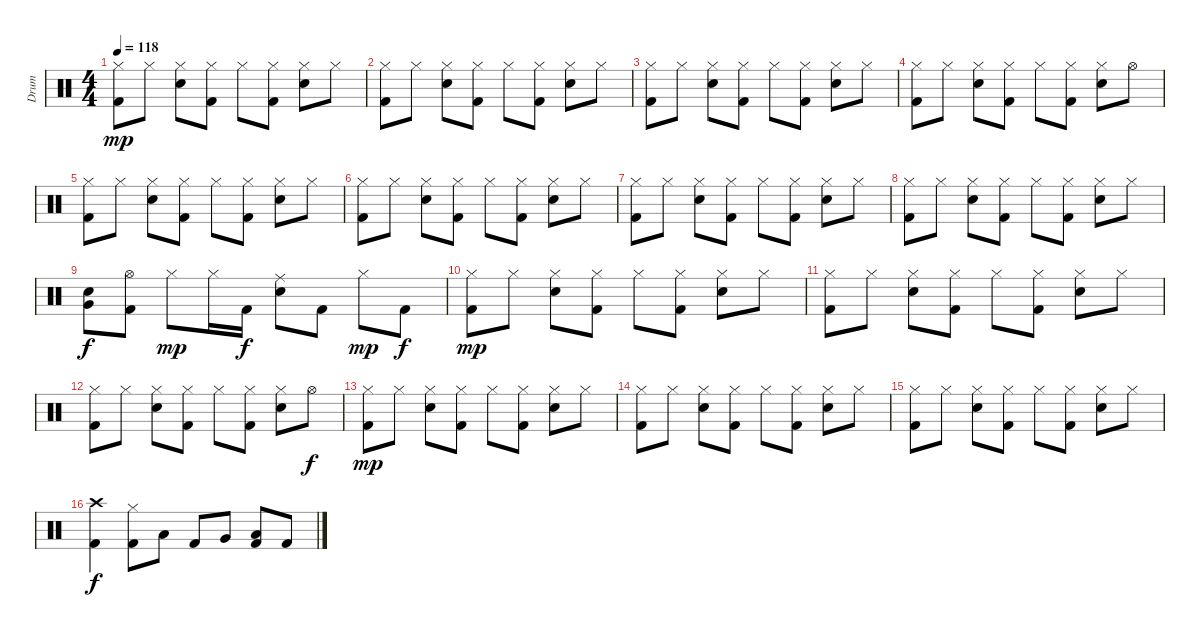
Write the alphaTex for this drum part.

\track ("Drum" "Drum") {instrument percussion}
\staff {score}
\articulation defaults
\ts (4 4)
\tempo 118
\clef neutral
\ks c
("Hi-Hat (closed)" "Kick (hit) 2").8{dy mp} "Hi-Hat (closed)".8 ("Hi-Hat (closed)" "Snare (hit) 2").8 ("Hi-Hat (closed)" "Kick (hit) 2").8 "Hi-Hat (closed)".8 ("Hi-Hat (closed)" "Kick (hit) 2").8 ("Hi-Hat (closed)" "Snare (hit) 2").8 "Hi-Hat (closed)".8 |
("Hi-Hat (closed)" "Kick (hit) 2").8 "Hi-Hat (closed)".8 ("Hi-Hat (closed)" "Snare (hit) 2").8 ("Hi-Hat (closed)" "Kick (hit) 2").8 "Hi-Hat (closed)".8 ("Hi-Hat (closed)" "Kick (hit) 2").8 ("Hi-Hat (closed)" "Snare (hit) 2").8 "Hi-Hat (closed)".8 |
("Hi-Hat (closed)" "Kick (hit) 2").8 "Hi-Hat (closed)".8 ("Hi-Hat (closed)" "Snare (hit) 2").8 ("Hi-Hat (closed)" "Kick (hit) 2").8 "Hi-Hat (closed)".8 ("Hi-Hat (closed)" "Kick (hit) 2").8 ("Hi-Hat (closed)" "Snare (hit) 2").8 "Hi-Hat (closed)".8 |
("Hi-Hat (closed)" "Kick (hit) 2").8 "Hi-Hat (closed)".8 ("Hi-Hat (closed)" "Snare (hit) 2").8 ("Hi-Hat (closed)" "Kick (hit) 2").8 "Hi-Hat (closed)".8 ("Hi-Hat (closed)" "Kick (hit) 2").8 ("Hi-Hat (closed)" "Snare (hit) 2").8 "Hi-Hat (open)".8 |
("Hi-Hat (closed)" "Kick (hit) 2").8 "Hi-Hat (closed)".8 ("Hi-Hat (closed)" "Snare (hit) 2").8 ("Hi-Hat (closed)" "Kick (hit) 2").8 "Hi-Hat (closed)".8 ("Hi-Hat (closed)" "Kick (hit) 2").8 ("Hi-Hat (closed)" "Snare (hit) 2").8 "Hi-Hat (closed)".8 |
("Hi-Hat (closed)" "Kick (hit) 2").8 "Hi-Hat (closed)".8 ("Hi-Hat (closed)" "Snare (hit) 2").8 ("Hi-Hat (closed)" "Kick (hit) 2").8 "Hi-Hat (closed)".8 ("Hi-Hat (closed)" "Kick (hit) 2").8 ("Hi-Hat (closed)" "Snare (hit) 2").8 "Hi-Hat (closed)".8 |
("Hi-Hat (closed)" "Kick (hit) 2").8 "Hi-Hat (closed)".8 ("Hi-Hat (closed)" "Snare (hit) 2").8 ("Hi-Hat (closed)" "Kick (hit) 2").8 "Hi-Hat (closed)".8 ("Hi-Hat (closed)" "Kick (hit) 2").8 ("Hi-Hat (closed)" "Snare (hit) 2").8 "Hi-Hat (closed)".8 |
("Hi-Hat (closed)" "Kick (hit) 2").8 "Hi-Hat (closed)".8 ("Hi-Hat (closed)" "Snare (hit) 2").8 ("Hi-Hat (closed)" "Kick (hit) 2").8 "Hi-Hat (closed)".8 ("Hi-Hat (closed)" "Kick (hit) 2").8 ("Hi-Hat (closed)" "Snare (hit) 2").8 "Hi-Hat (closed)".8 |
("Snare (hit) 2" "Very Low Tom (hit)").8{dy f} ("Hi-Hat (open)" "Kick (hit) 2").8 "Hi-Hat (closed)".8{dy mp} "Hi-Hat (closed)".16 "Kick (hit) 2".16{dy f} ("Ride (middle)" "Snare (hit) 2").8 "Kick (hit) 2".8 "Hi-Hat (closed)".8{dy mp} "Kick (hit) 2".8{dy f} |
("Hi-Hat (closed)" "Kick (hit) 2").8{dy mp} "Hi-Hat (closed)".8 ("Hi-Hat (closed)" "Snare (hit) 2").8 ("Hi-Hat (closed)" "Kick (hit) 2").8 "Hi-Hat (closed)".8 ("Hi-Hat (closed)" "Kick (hit) 2").8 ("Hi-Hat (closed)" "Snare (hit) 2").8 "Hi-Hat (closed)".8 |
("Hi-Hat (closed)" "Kick (hit) 2").8 "Hi-Hat (closed)".8 ("Hi-Hat (closed)" "Snare (hit) 2").8 ("Hi-Hat (closed)" "Kick (hit) 2").8 "Hi-Hat (closed)".8 ("Hi-Hat (closed)" "Kick (hit) 2").8 ("Hi-Hat (closed)" "Snare (hit) 2").8 "Hi-Hat (closed)".8 |
("Hi-Hat (closed)" "Kick (hit) 2").8 "Hi-Hat (closed)".8 ("Hi-Hat (closed)" "Snare (hit) 2").8 ("Hi-Hat (closed)" "Kick (hit) 2").8 "Hi-Hat (closed)".8 ("Hi-Hat (closed)" "Kick (hit) 2").8 ("Hi-Hat (closed)" "Snare (hit) 2").8 "Hi-Hat (open)".8{dy f} |
("Hi-Hat (closed)" "Kick (hit) 2").8{dy mp} "Hi-Hat (closed)".8 ("Hi-Hat (closed)" "Snare (hit) 2").8 ("Hi-Hat (closed)" "Kick (hit) 2").8 "Hi-Hat (closed)".8 ("Hi-Hat (closed)" "Kick (hit) 2").8 ("Hi-Hat (closed)" "Snare (hit) 2").8 "Hi-Hat (closed)".8 |
("Hi-Hat (closed)" "Kick (hit) 2").8 "Hi-Hat (closed)".8 ("Hi-Hat (closed)" "Snare (hit) 2").8 ("Hi-Hat (closed)" "Kick (hit) 2").8 "Hi-Hat (closed)".8 ("Hi-Hat (closed)" "Kick (hit) 2").8 ("Hi-Hat (closed)" "Snare (hit) 2").8 "Hi-Hat (closed)".8 |
("Hi-Hat (closed)" "Kick (hit) 2").8 "Hi-Hat (closed)".8 ("Hi-Hat (closed)" "Snare (hit) 2").8 ("Hi-Hat (closed)" "Kick (hit) 2").8 "Hi-Hat (closed)".8 ("Hi-Hat (closed)" "Kick (hit) 2").8 ("Hi-Hat (closed)" "Snare (hit) 2").8 "Hi-Hat (closed)".8 |
("Crash high (hit)" "Kick (hit) 2").4{dy f} ("Hi-Hat (closed)" "Kick (hit) 2").8 "Low Tom (hit)".8 "Kick (hit) 2".8 "Very Low Tom (hit)".8 ("Low Floor Tom (hit)" "Kick (hit) 2").8 "Kick (hit) 2".8
